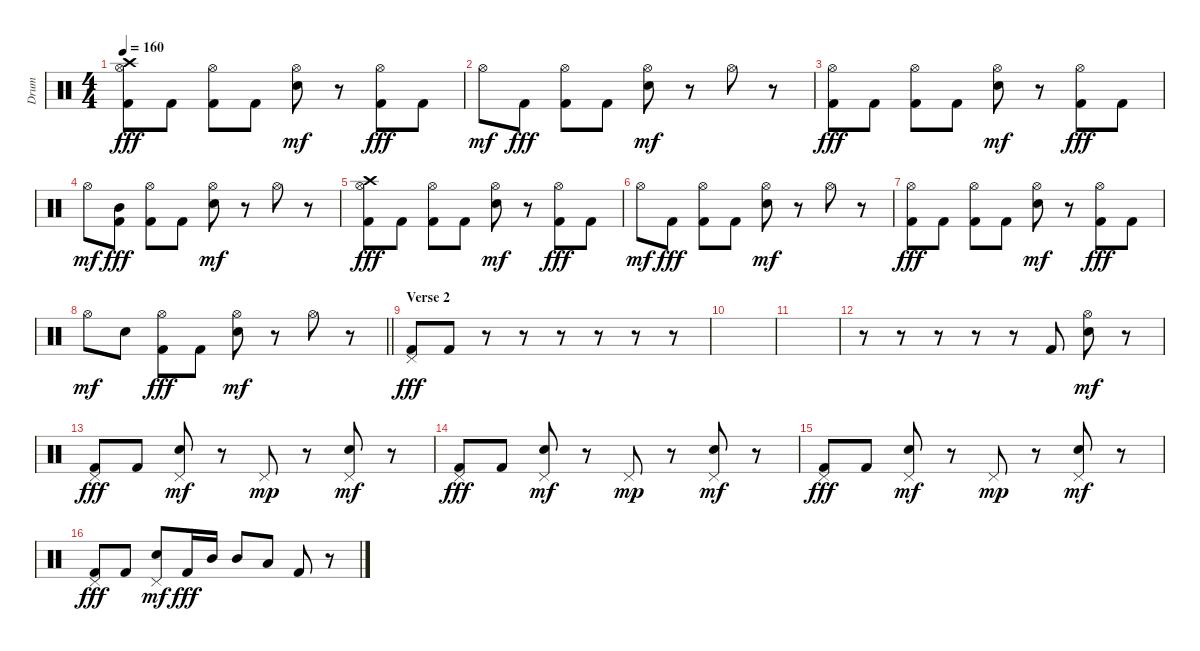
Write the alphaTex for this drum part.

\track ("Drum" "Drum") {instrument percussion}
\staff {score}
\articulation defaults
\ts (4 4)
\tempo 160
\clef neutral
\ks c
("Hi-Hat (open)" "Kick (hit) 2" "Crash high (hit)").8{dy fff} "Kick (hit) 2".8 ("Hi-Hat (open)" "Kick (hit) 2").8 "Kick (hit) 2".8 ("Hi-Hat (open)" "Electric Snare (hit)").8{dy mf} r.8 ("Hi-Hat (open)" "Kick (hit) 2").8{dy fff} "Kick (hit) 2".8 |
"Hi-Hat (open)".8{dy mf} "Kick (hit) 2".8{dy fff} ("Hi-Hat (open)" "Kick (hit) 2").8 "Kick (hit) 2".8 ("Hi-Hat (open)" "Electric Snare (hit)").8{dy mf} r.8 "Hi-Hat (open)".8 r.8 |
("Hi-Hat (open)" "Kick (hit) 2").8{dy fff} "Kick (hit) 2".8 ("Hi-Hat (open)" "Kick (hit) 2").8 "Kick (hit) 2".8 ("Hi-Hat (open)" "Electric Snare (hit)").8{dy mf} r.8 ("Hi-Hat (open)" "Kick (hit) 2").8{dy fff} "Kick (hit) 2".8 |
"Hi-Hat (open)".8{dy mf} ("Mid Tom (hit)" "Kick (hit) 2").8{dy fff} ("Hi-Hat (open)" "Kick (hit) 2").8 "Kick (hit) 2".8 ("Hi-Hat (open)" "Electric Snare (hit)").8{dy mf} r.8 "Hi-Hat (open)".8 r.8 |
("Hi-Hat (open)" "Kick (hit) 2" "Crash high (hit)").8{dy fff} "Kick (hit) 2".8 ("Hi-Hat (open)" "Kick (hit) 2").8 "Kick (hit) 2".8 ("Hi-Hat (open)" "Electric Snare (hit)").8{dy mf} r.8 ("Hi-Hat (open)" "Kick (hit) 2").8{dy fff} "Kick (hit) 2".8 |
"Hi-Hat (open)".8{dy mf} "Kick (hit) 2".8{dy fff} ("Hi-Hat (open)" "Kick (hit) 2").8 "Kick (hit) 2".8 ("Hi-Hat (open)" "Electric Snare (hit)").8{dy mf} r.8 "Hi-Hat (open)".8 r.8 |
("Hi-Hat (open)" "Kick (hit) 2").8{dy fff} "Kick (hit) 2".8 ("Hi-Hat (open)" "Kick (hit) 2").8 "Kick (hit) 2".8 ("Hi-Hat (open)" "Electric Snare (hit)").8{dy mf} r.8 ("Hi-Hat (open)" "Kick (hit) 2").8{dy fff} "Kick (hit) 2".8 |
\barLineRight lightlight "Hi-Hat (open)".8{dy mf} "Electric Snare (hit)".8
("Hi-Hat (open)" "Kick (hit) 2").8{dy fff} "Kick (hit) 2".8 ("Hi-Hat (open)" "Electric Snare (hit)").8{dy mf} r.8 "Hi-Hat (open)".8 r.8 |
\section ("" "Verse 2")
("Pedal Hi-Hat (hit)" "Kick (hit) 2").8{dy fff} "Kick (hit) 2".8 r.8 r.8 r.8 r.8 r.8 r.8 |
|
|
r.8 r.8 r.8 r.8 r.8 "Kick (hit) 2".8 ("Hi-Hat (open)" "Electric Snare (hit)").8{dy mf} r.8 |
("Pedal Hi-Hat (hit)" "Kick (hit) 2").8{dy fff} "Kick (hit) 2".8 ("Pedal Hi-Hat (hit)" "Electric Snare (hit)").8{dy mf} r.8 "Pedal Hi-Hat (hit)".8{dy mp} r.8 ("Pedal Hi-Hat (hit)" "Electric Snare (hit)").8{dy mf} r.8 |
("Pedal Hi-Hat (hit)" "Kick (hit) 2").8{dy fff} "Kick (hit) 2".8 ("Pedal Hi-Hat (hit)" "Electric Snare (hit)").8{dy mf} r.8 "Pedal Hi-Hat (hit)".8{dy mp} r.8 ("Pedal Hi-Hat (hit)" "Electric Snare (hit)").8{dy mf} r.8 |
("Pedal Hi-Hat (hit)" "Kick (hit) 2").8{dy fff} "Kick (hit) 2".8 ("Pedal Hi-Hat (hit)" "Electric Snare (hit)").8{dy mf} r.8 "Pedal Hi-Hat (hit)".8{dy mp} r.8 ("Pedal Hi-Hat (hit)" "Electric Snare (hit)").8{dy mf} r.8 |
("Pedal Hi-Hat (hit)" "Kick (hit) 2").8{dy fff} "Kick (hit) 2".8 ("Pedal Hi-Hat (hit)" "Electric Snare (hit)").8{dy mf} "Kick (hit) 2".16{dy fff} "Mid Tom (hit)".16 "Mid Tom (hit)".8 "Low Tom (hit)".8 "Kick (hit) 2".8 r.8
